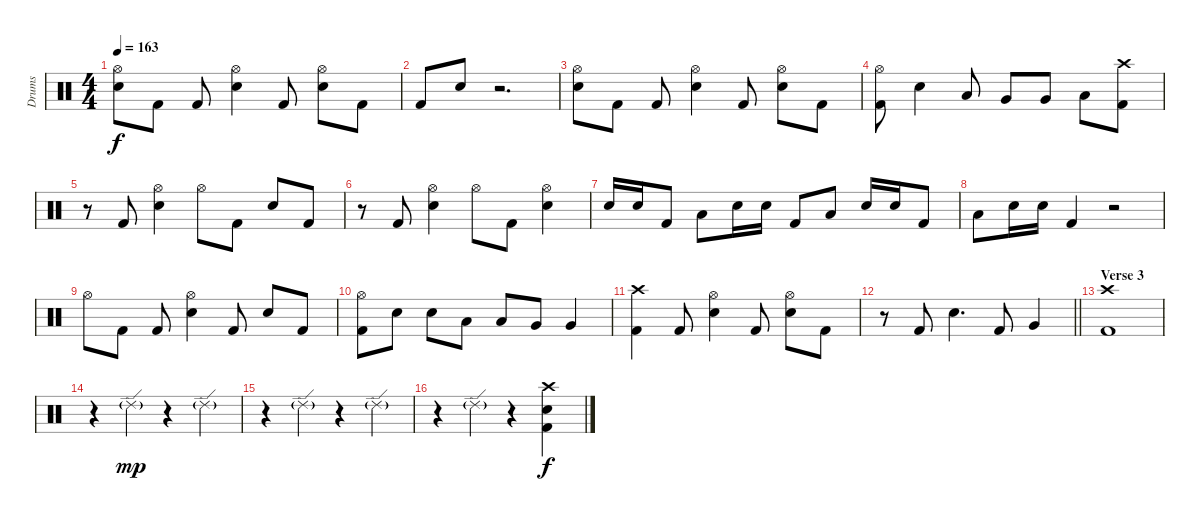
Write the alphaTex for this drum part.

\track ("Drums" "Drums") {instrument percussion}
\staff {score}
\articulation defaults
\ts (4 4)
\tempo 163
\clef neutral
\ks c
("Hi-Hat (open)" "Snare (hit) 2").8{dy f} "Kick (hit) 2".8 "Kick (hit) 2".8 ("Hi-Hat (open)" "Snare (hit) 2").4 "Kick (hit) 2".8 ("Hi-Hat (open)" "Snare (hit) 2").8 "Kick (hit) 2".8 |
"Kick (hit) 2".8 "Snare (hit) 2".8 r.2{d} |
("Hi-Hat (open)" "Snare (hit) 2").8 "Kick (hit) 2".8 "Kick (hit) 2".8 ("Hi-Hat (open)" "Snare (hit) 2").4 "Kick (hit) 2".8 ("Hi-Hat (open)" "Snare (hit) 2").8 "Kick (hit) 2".8 |
("Hi-Hat (open)" "Kick (hit) 2").8 "Snare (hit) 2".4 "Low Tom (hit)".8 "Very Low Tom (hit)".8 "Very Low Tom (hit)".8 "Low Floor Tom (hit)".8 ("Crash high (hit)" "Kick (hit) 2").8 |
r.8 "Kick (hit) 2".8 ("Hi-Hat (open)" "Snare (hit) 2").4 "Hi-Hat (open)".8 "Kick (hit) 2".8 "Snare (hit) 2".8 "Kick (hit) 2".8 |
r.8 "Kick (hit) 2".8 ("Hi-Hat (open)" "Snare (hit) 2").4 "Hi-Hat (open)".8 "Kick (hit) 2".8 ("Hi-Hat (open)" "Snare (hit) 2").4 |
"Snare (hit) 2".16 "Snare (hit) 2".16 "Kick (hit) 2".8 "Low Floor Tom (hit)".8 "Snare (hit) 2".16 "Snare (hit) 2".16 "Kick (hit) 2".8 "Low Floor Tom (hit)".8 "Snare (hit) 2".16 "Snare (hit) 2".16 "Kick (hit) 2".8 |
"Low Floor Tom (hit)".8 "Snare (hit) 2".16 "Snare (hit) 2".16 "Kick (hit) 2".4 r.2 |
"Hi-Hat (open)".8 "Kick (hit) 2".8 "Kick (hit) 2".8 ("Hi-Hat (open)" "Snare (hit) 2").4 "Kick (hit) 2".8 "Snare (hit) 2".8 "Kick (hit) 2".8 |
("Hi-Hat (open)" "Kick (hit) 2").8 "Snare (hit) 2".8 "Snare (hit) 2".8 "Low Tom (hit)".8 "Low Tom (hit)".8 "Very Low Tom (hit)".8 "Very Low Tom (hit)".4 |
("Crash high (hit)" "Kick (hit) 2").4 "Kick (hit) 2".8 ("Hi-Hat (open)" "Snare (hit) 2").4 "Kick (hit) 2".8 ("Hi-Hat (open)" "Snare (hit) 2").8 "Kick (hit) 2".8 |
\barLineRight lightlight
r.8 "Kick (hit) 2".8 "Snare (hit) 2".4{d} "Kick (hit) 2".8 "Very Low Tom (hit)".4 |
\section ("" "Verse 3")
("Crash high (hit)" "Kick (hit) 2").1 |
r.4 "Ride (edge) 2"{g}.4{dy mp} r.4 "Ride (edge) 2"{g}.4 |
r.4 "Ride (edge) 2"{g}.4 r.4 "Ride (edge) 2"{g}.4 |
r.4 "Ride (edge) 2"{g}.4 r.4 ("Crash high (hit)" "Snare (hit) 2" "Kick (hit) 2").4{dy f}
